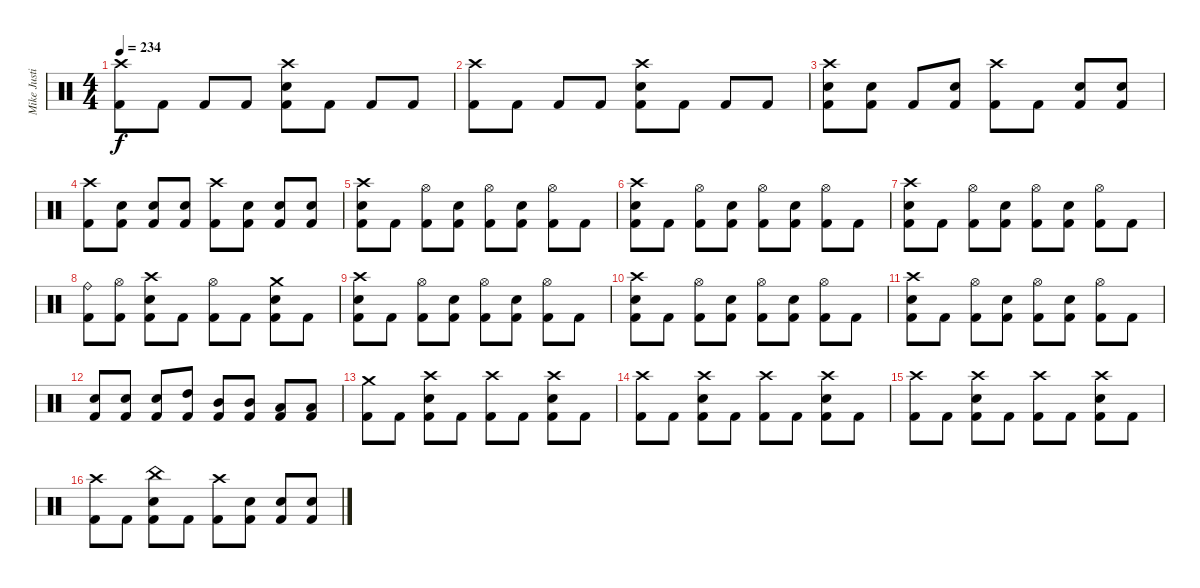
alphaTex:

\track ("Mike Justian (Drums)" "Mike Justi") {instrument percussion}
\staff {score}
\articulation defaults
\ts (4 4)
\tempo 234
\clef neutral
\ks c
("Crash high (hit)" "Kick (hit) 2").8{dy f} "Kick (hit) 2".8 "Kick (hit) 2".8 "Kick (hit) 2".8 ("Crash high (hit)" "Snare (hit) 2" "Kick (hit) 2").8 "Kick (hit) 2".8 "Kick (hit) 2".8 "Kick (hit) 2".8 |
("Crash high (hit)" "Kick (hit) 2").8 "Kick (hit) 2".8 "Kick (hit) 2".8 "Kick (hit) 2".8 ("Crash high (hit)" "Snare (hit) 2" "Kick (hit) 2").8 "Kick (hit) 2".8 "Kick (hit) 2".8 "Kick (hit) 2".8 |
("Crash high (hit)" "Snare (hit) 2" "Kick (hit) 2").8 ("Snare (hit) 2" "Kick (hit) 2").8 "Kick (hit) 2".8 ("Snare (hit) 2" "Kick (hit) 2").8 ("Crash high (hit)" "Kick (hit) 2").8 "Kick (hit) 2".8 ("Snare (hit) 2" "Kick (hit) 2").8 ("Snare (hit) 2" "Kick (hit) 2").8 |
("Crash high (hit)" "Kick (hit) 2").8 ("Snare (hit) 2" "Kick (hit) 2").8 ("Snare (hit) 2" "Kick (hit) 2").8 ("Snare (hit) 2" "Kick (hit) 2").8 ("Crash high (hit)" "Kick (hit) 2").8 ("Snare (hit) 2" "Kick (hit) 2").8 ("Snare (hit) 2" "Kick (hit) 2").8 ("Snare (hit) 2" "Kick (hit) 2").8 |
("Crash high (hit)" "Kick (hit) 2" "Snare (hit) 2").8 "Kick (hit) 2".8 ("Hi-Hat (open)" "Kick (hit) 2").8 ("Kick (hit) 2" "Snare (hit) 2").8 ("Hi-Hat (open)" "Kick (hit) 2").8 ("Kick (hit) 2" "Snare (hit) 2").8 ("Hi-Hat (open)" "Kick (hit) 2").8 "Kick (hit) 2".8 |
("Crash high (hit)" "Kick (hit) 2" "Snare (hit) 2").8 "Kick (hit) 2".8 ("Hi-Hat (open)" "Kick (hit) 2").8 ("Kick (hit) 2" "Snare (hit) 2").8 ("Hi-Hat (open)" "Kick (hit) 2").8 ("Kick (hit) 2" "Snare (hit) 2").8 ("Hi-Hat (open)" "Kick (hit) 2").8 "Kick (hit) 2".8 |
("Crash high (hit)" "Kick (hit) 2" "Snare (hit) 2").8 "Kick (hit) 2".8 ("Hi-Hat (open)" "Kick (hit) 2").8 ("Kick (hit) 2" "Snare (hit) 2").8 ("Hi-Hat (open)" "Kick (hit) 2").8 ("Kick (hit) 2" "Snare (hit) 2").8 ("Hi-Hat (open)" "Kick (hit) 2").8 "Kick (hit) 2".8 |
("Ride (bell)" "Kick (hit) 2").8 ("Hi-Hat (open)" "Kick (hit) 2").8 ("Crash high (hit)" "Snare (hit) 2" "Kick (hit) 2").8 "Kick (hit) 2".8 ("Hi-Hat (open)" "Kick (hit) 2").8 "Kick (hit) 2".8 ("Kick (hit) 2" "Crash medium (hit)" "Snare (hit) 2").8 "Kick (hit) 2".8 |
("Crash high (hit)" "Kick (hit) 2" "Snare (hit) 2").8 "Kick (hit) 2".8 ("Hi-Hat (open)" "Kick (hit) 2").8 ("Kick (hit) 2" "Snare (hit) 2").8 ("Hi-Hat (open)" "Kick (hit) 2").8 ("Kick (hit) 2" "Snare (hit) 2").8 ("Hi-Hat (open)" "Kick (hit) 2").8 "Kick (hit) 2".8 |
("Crash high (hit)" "Kick (hit) 2" "Snare (hit) 2").8 "Kick (hit) 2".8 ("Hi-Hat (open)" "Kick (hit) 2").8 ("Kick (hit) 2" "Snare (hit) 2").8 ("Hi-Hat (open)" "Kick (hit) 2").8 ("Kick (hit) 2" "Snare (hit) 2").8 ("Hi-Hat (open)" "Kick (hit) 2").8 "Kick (hit) 2".8 |
("Crash high (hit)" "Kick (hit) 2" "Snare (hit) 2").8 "Kick (hit) 2".8 ("Hi-Hat (open)" "Kick (hit) 2").8 ("Kick (hit) 2" "Snare (hit) 2").8 ("Hi-Hat (open)" "Kick (hit) 2").8 ("Kick (hit) 2" "Snare (hit) 2").8 ("Hi-Hat (open)" "Kick (hit) 2").8 "Kick (hit) 2".8 |
("Snare (hit) 2" "Kick (hit) 2").8 ("Snare (hit) 2" "Kick (hit) 2").8 ("Snare (hit) 2" "Kick (hit) 2").8 ("High Tom (hit)" "Kick (hit) 2").8 ("Mid Tom (hit)" "Kick (hit) 2").8 ("Mid Tom (hit)" "Kick (hit) 2").8 ("Low Tom (hit)" "Kick (hit) 2").8 ("Low Tom (hit)" "Kick (hit) 2").8 |
("Crash medium (hit)" "Kick (hit) 2").8 "Kick (hit) 2".8 ("Crash high (hit)" "Snare (hit) 2" "Kick (hit) 2").8 "Kick (hit) 2".8 ("Crash high (hit)" "Kick (hit) 2").8 "Kick (hit) 2".8 ("Crash high (hit)" "Snare (hit) 2" "Kick (hit) 2").8 "Kick (hit) 2".8 |
("Crash high (hit)" "Kick (hit) 2").8 "Kick (hit) 2".8 ("Crash high (hit)" "Snare (hit) 2" "Kick (hit) 2").8 "Kick (hit) 2".8 ("Crash high (hit)" "Kick (hit) 2").8 "Kick (hit) 2".8 ("Crash high (hit)" "Snare (hit) 2" "Kick (hit) 2").8 "Kick (hit) 2".8 |
("Crash high (hit)" "Kick (hit) 2").8 "Kick (hit) 2".8 ("Crash high (hit)" "Snare (hit) 2" "Kick (hit) 2").8 "Kick (hit) 2".8 ("Crash high (hit)" "Kick (hit) 2").8 "Kick (hit) 2".8 ("Crash high (hit)" "Snare (hit) 2" "Kick (hit) 2").8 "Kick (hit) 2".8 |
("Crash high (hit)" "Kick (hit) 2").8 "Kick (hit) 2".8 ("China (hit)" "Snare (hit) 2" "Kick (hit) 2").8 "Kick (hit) 2".8 ("Crash high (hit)" "Kick (hit) 2").8 ("Snare (hit) 2" "Kick (hit) 2").8 ("Snare (hit) 2" "Kick (hit) 2").8 ("Snare (hit) 2" "Kick (hit) 2").8
